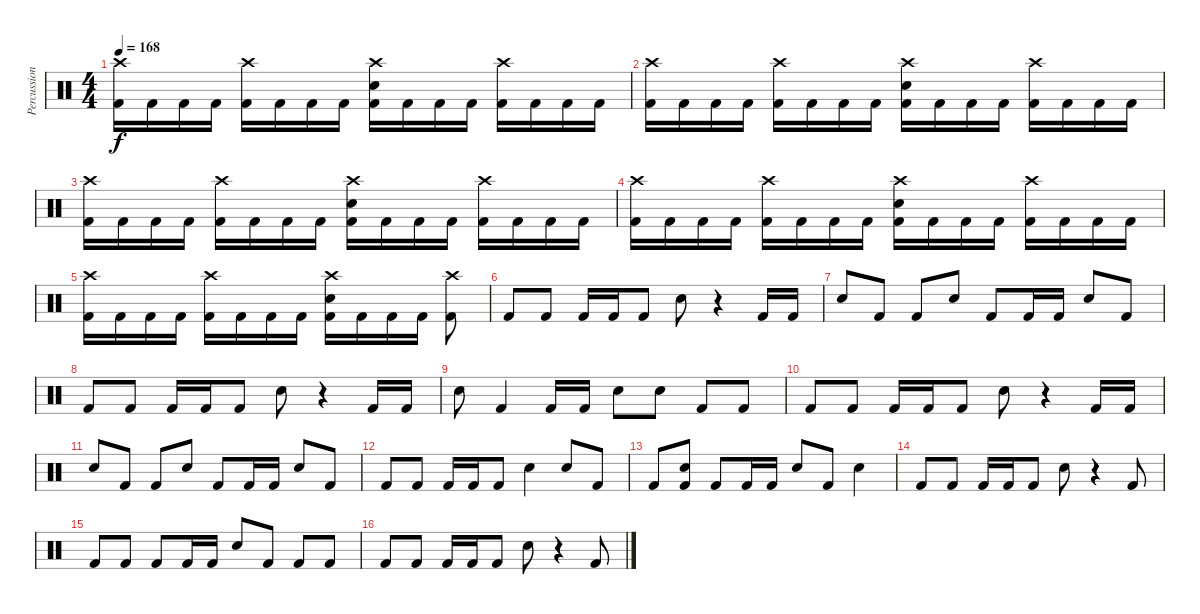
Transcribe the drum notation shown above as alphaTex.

\track ("Percussion" "Percussion") {instrument percussion}
\staff {score}
\articulation defaults
\ts (4 4)
\tempo 168
\clef neutral
\ks c
("Crash high (hit)" "Kick (hit) 2").16{dy f} "Kick (hit) 2".16 "Kick (hit) 2".16 "Kick (hit) 2".16 ("Crash high (hit)" "Kick (hit) 2").16 "Kick (hit) 2".16 "Kick (hit) 2".16 "Kick (hit) 2".16 ("Crash high (hit)" "Electric Snare (hit)" "Kick (hit) 2").16 "Kick (hit) 2".16 "Kick (hit) 2".16 "Kick (hit) 2".16 ("Crash high (hit)" "Kick (hit) 2").16 "Kick (hit) 2".16 "Kick (hit) 2".16 "Kick (hit) 2".16 |
("Crash high (hit)" "Kick (hit) 2").16 "Kick (hit) 2".16 "Kick (hit) 2".16 "Kick (hit) 2".16 ("Crash high (hit)" "Kick (hit) 2").16 "Kick (hit) 2".16 "Kick (hit) 2".16 "Kick (hit) 2".16 ("Crash high (hit)" "Electric Snare (hit)" "Kick (hit) 2").16 "Kick (hit) 2".16 "Kick (hit) 2".16 "Kick (hit) 2".16 ("Crash high (hit)" "Kick (hit) 2").16 "Kick (hit) 2".16 "Kick (hit) 2".16 "Kick (hit) 2".16 |
("Crash high (hit)" "Kick (hit) 2").16 "Kick (hit) 2".16 "Kick (hit) 2".16 "Kick (hit) 2".16 ("Crash high (hit)" "Kick (hit) 2").16 "Kick (hit) 2".16 "Kick (hit) 2".16 "Kick (hit) 2".16 ("Crash high (hit)" "Electric Snare (hit)" "Kick (hit) 2").16 "Kick (hit) 2".16 "Kick (hit) 2".16 "Kick (hit) 2".16 ("Crash high (hit)" "Kick (hit) 2").16 "Kick (hit) 2".16 "Kick (hit) 2".16 "Kick (hit) 2".16 |
("Crash high (hit)" "Kick (hit) 2").16 "Kick (hit) 2".16 "Kick (hit) 2".16 "Kick (hit) 2".16 ("Crash high (hit)" "Kick (hit) 2").16 "Kick (hit) 2".16 "Kick (hit) 2".16 "Kick (hit) 2".16 ("Crash high (hit)" "Electric Snare (hit)" "Kick (hit) 2").16 "Kick (hit) 2".16 "Kick (hit) 2".16 "Kick (hit) 2".16 ("Crash high (hit)" "Kick (hit) 2").16 "Kick (hit) 2".16 "Kick (hit) 2".16 "Kick (hit) 2".16 |
("Crash high (hit)" "Kick (hit) 2").16 "Kick (hit) 2".16 "Kick (hit) 2".16 "Kick (hit) 2".16 ("Crash high (hit)" "Kick (hit) 2").16 "Kick (hit) 2".16 "Kick (hit) 2".16 "Kick (hit) 2".16 ("Crash high (hit)" "Electric Snare (hit)" "Kick (hit) 2").16 "Kick (hit) 2".16 "Kick (hit) 2".16 "Kick (hit) 2".16 ("Crash high (hit)" "Kick (hit) 2").8 |
"Kick (hit) 2".8 "Kick (hit) 2".8 "Kick (hit) 2".16 "Kick (hit) 2".16 "Kick (hit) 2".8 "Electric Snare (hit)".8 r.4 "Kick (hit) 2".16 "Kick (hit) 2".16 |
"Electric Snare (hit)".8 "Kick (hit) 2".8 "Kick (hit) 2".8 "Electric Snare (hit)".8 "Kick (hit) 2".8 "Kick (hit) 2".16 "Kick (hit) 2".16 "Electric Snare (hit)".8 "Kick (hit) 2".8 |
"Kick (hit) 2".8 "Kick (hit) 2".8 "Kick (hit) 2".16 "Kick (hit) 2".16 "Kick (hit) 2".8 "Electric Snare (hit)".8 r.4 "Kick (hit) 2".16 "Kick (hit) 2".16 |
"Electric Snare (hit)".8 "Kick (hit) 2".4 "Kick (hit) 2".16 "Kick (hit) 2".16 "Electric Snare (hit)".8 "Electric Snare (hit)".8 "Kick (hit) 2".8 "Kick (hit) 2".8 |
"Kick (hit) 2".8 "Kick (hit) 2".8 "Kick (hit) 2".16 "Kick (hit) 2".16 "Kick (hit) 2".8 "Electric Snare (hit)".8 r.4 "Kick (hit) 2".16 "Kick (hit) 2".16 |
"Electric Snare (hit)".8 "Kick (hit) 2".8 "Kick (hit) 2".8 "Electric Snare (hit)".8 "Kick (hit) 2".8 "Kick (hit) 2".16 "Kick (hit) 2".16 "Electric Snare (hit)".8 "Kick (hit) 2".8 |
"Kick (hit) 2".8 "Kick (hit) 2".8 "Kick (hit) 2".16 "Kick (hit) 2".16 "Kick (hit) 2".8 "Electric Snare (hit)".4 "Electric Snare (hit)".8 "Kick (hit) 2".8 |
"Kick (hit) 2".8 ("Electric Snare (hit)" "Kick (hit) 2").8 "Kick (hit) 2".8 "Kick (hit) 2".16 "Kick (hit) 2".16 "Electric Snare (hit)".8 "Kick (hit) 2".8 "Electric Snare (hit)".4 |
"Kick (hit) 2".8 "Kick (hit) 2".8 "Kick (hit) 2".16 "Kick (hit) 2".16 "Kick (hit) 2".8 "Electric Snare (hit)".8 r.4 "Kick (hit) 2".8 |
"Kick (hit) 2".8 "Kick (hit) 2".8 "Kick (hit) 2".8 "Kick (hit) 2".16 "Kick (hit) 2".16 "Electric Snare (hit)".8 "Kick (hit) 2".8 "Kick (hit) 2".8 "Kick (hit) 2".8 |
"Kick (hit) 2".8 "Kick (hit) 2".8 "Kick (hit) 2".16 "Kick (hit) 2".16 "Kick (hit) 2".8 "Electric Snare (hit)".8 r.4 "Kick (hit) 2".8
